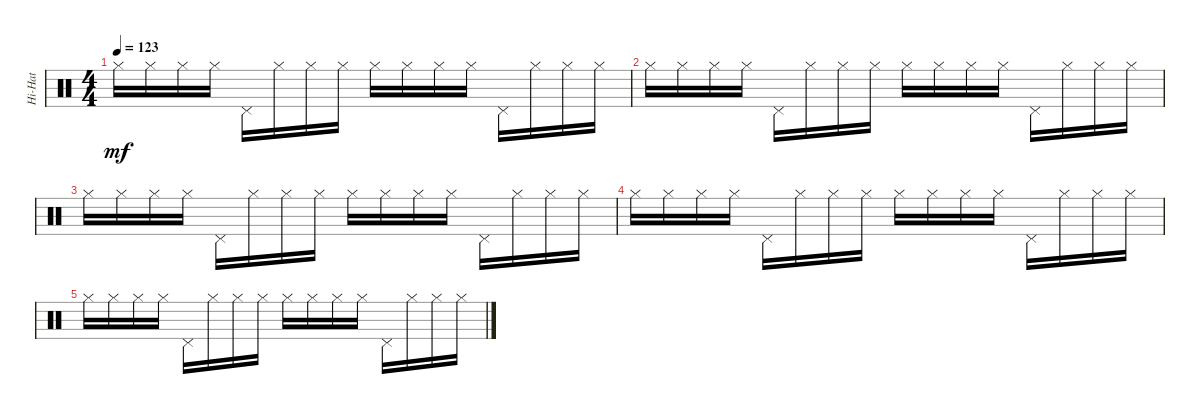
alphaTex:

\track ("Hi-Hat" "Hi-Hat") {instrument percussion}
\staff {score}
\articulation defaults
\ts (4 4)
\tempo 123
\clef neutral
\ks c "Hi-Hat (closed)".16{dy mf} "Hi-Hat (closed)".16 "Hi-Hat (closed)".16 "Hi-Hat (closed)".16 "Pedal Hi-Hat (hit)".16 "Hi-Hat (closed)".16 "Hi-Hat (closed)".16 "Hi-Hat (closed)".16 "Hi-Hat (closed)".16 "Hi-Hat (closed)".16 "Hi-Hat (closed)".16 "Hi-Hat (closed)".16 "Pedal Hi-Hat (hit)".16 "Hi-Hat (closed)".16 "Hi-Hat (closed)".16 "Hi-Hat (closed)".16
|
"Hi-Hat (closed)".16 "Hi-Hat (closed)".16 "Hi-Hat (closed)".16 "Hi-Hat (closed)".16 "Pedal Hi-Hat (hit)".16 "Hi-Hat (closed)".16 "Hi-Hat (closed)".16 "Hi-Hat (closed)".16 "Hi-Hat (closed)".16 "Hi-Hat (closed)".16 "Hi-Hat (closed)".16 "Hi-Hat (closed)".16 "Pedal Hi-Hat (hit)".16 "Hi-Hat (closed)".16 "Hi-Hat (closed)".16 "Hi-Hat (closed)".16 |
"Hi-Hat (closed)".16 "Hi-Hat (closed)".16 "Hi-Hat (closed)".16 "Hi-Hat (closed)".16 "Pedal Hi-Hat (hit)".16 "Hi-Hat (closed)".16 "Hi-Hat (closed)".16 "Hi-Hat (closed)".16 "Hi-Hat (closed)".16 "Hi-Hat (closed)".16 "Hi-Hat (closed)".16 "Hi-Hat (closed)".16 "Pedal Hi-Hat (hit)".16 "Hi-Hat (closed)".16 "Hi-Hat (closed)".16 "Hi-Hat (closed)".16 |
"Hi-Hat (closed)".16 "Hi-Hat (closed)".16 "Hi-Hat (closed)".16 "Hi-Hat (closed)".16 "Pedal Hi-Hat (hit)".16 "Hi-Hat (closed)".16 "Hi-Hat (closed)".16 "Hi-Hat (closed)".16 "Hi-Hat (closed)".16 "Hi-Hat (closed)".16 "Hi-Hat (closed)".16 "Hi-Hat (closed)".16 "Pedal Hi-Hat (hit)".16 "Hi-Hat (closed)".16 "Hi-Hat (closed)".16 "Hi-Hat (closed)".16 |
"Hi-Hat (closed)".16 "Hi-Hat (closed)".16 "Hi-Hat (closed)".16 "Hi-Hat (closed)".16 "Pedal Hi-Hat (hit)".16 "Hi-Hat (closed)".16 "Hi-Hat (closed)".16 "Hi-Hat (closed)".16 "Hi-Hat (closed)".16 "Hi-Hat (closed)".16 "Hi-Hat (closed)".16 "Hi-Hat (closed)".16 "Pedal Hi-Hat (hit)".16 "Hi-Hat (closed)".16 "Hi-Hat (closed)".16 "Hi-Hat (closed)".16
